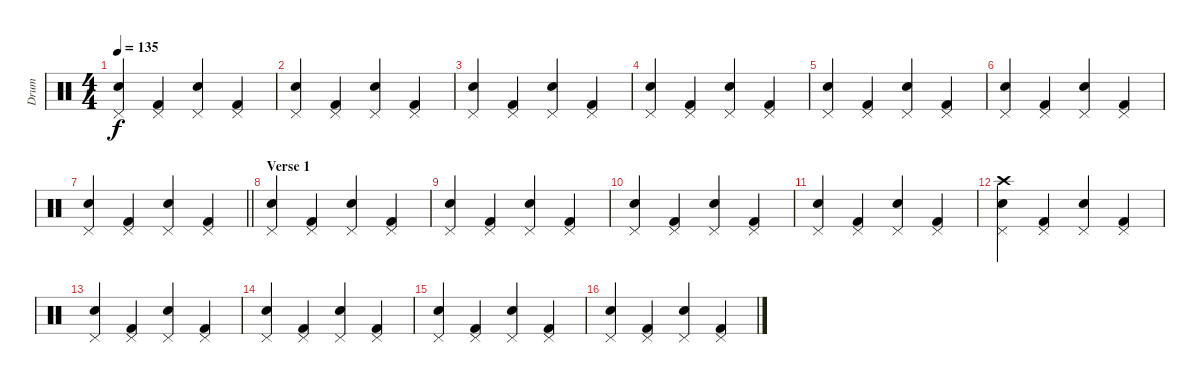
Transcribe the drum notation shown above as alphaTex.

\track ("Drum" "Drum") {instrument percussion}
\staff {score}
\articulation defaults
\ts (4 4)
\tempo 135
\clef neutral
\ks c
("Electric Snare (hit)" "Pedal Hi-Hat (hit)").4{dy f} ("Kick (hit) 2" "Pedal Hi-Hat (hit)").4 ("Electric Snare (hit)" "Pedal Hi-Hat (hit)").4 ("Kick (hit) 2" "Pedal Hi-Hat (hit)").4 |
("Electric Snare (hit)" "Pedal Hi-Hat (hit)").4 ("Kick (hit) 2" "Pedal Hi-Hat (hit)").4 ("Electric Snare (hit)" "Pedal Hi-Hat (hit)").4 ("Kick (hit) 2" "Pedal Hi-Hat (hit)").4 |
("Electric Snare (hit)" "Pedal Hi-Hat (hit)").4 ("Kick (hit) 2" "Pedal Hi-Hat (hit)").4 ("Electric Snare (hit)" "Pedal Hi-Hat (hit)").4 ("Kick (hit) 2" "Pedal Hi-Hat (hit)").4 |
("Electric Snare (hit)" "Pedal Hi-Hat (hit)").4 ("Kick (hit) 2" "Pedal Hi-Hat (hit)").4 ("Electric Snare (hit)" "Pedal Hi-Hat (hit)").4 ("Kick (hit) 2" "Pedal Hi-Hat (hit)").4 |
("Electric Snare (hit)" "Pedal Hi-Hat (hit)").4 ("Kick (hit) 2" "Pedal Hi-Hat (hit)").4 ("Electric Snare (hit)" "Pedal Hi-Hat (hit)").4 ("Kick (hit) 2" "Pedal Hi-Hat (hit)").4 |
("Electric Snare (hit)" "Pedal Hi-Hat (hit)").4 ("Kick (hit) 2" "Pedal Hi-Hat (hit)").4 ("Electric Snare (hit)" "Pedal Hi-Hat (hit)").4 ("Kick (hit) 2" "Pedal Hi-Hat (hit)").4 |
\barLineRight lightlight
("Electric Snare (hit)" "Pedal Hi-Hat (hit)").4 ("Kick (hit) 2" "Pedal Hi-Hat (hit)").4 ("Electric Snare (hit)" "Pedal Hi-Hat (hit)").4 ("Kick (hit) 2" "Pedal Hi-Hat (hit)").4 |
\section ("" "Verse 1")
("Electric Snare (hit)" "Pedal Hi-Hat (hit)").4 ("Kick (hit) 2" "Pedal Hi-Hat (hit)").4 ("Electric Snare (hit)" "Pedal Hi-Hat (hit)").4 ("Kick (hit) 2" "Pedal Hi-Hat (hit)").4 |
("Electric Snare (hit)" "Pedal Hi-Hat (hit)").4 ("Kick (hit) 2" "Pedal Hi-Hat (hit)").4 ("Electric Snare (hit)" "Pedal Hi-Hat (hit)").4 ("Kick (hit) 2" "Pedal Hi-Hat (hit)").4 |
("Electric Snare (hit)" "Pedal Hi-Hat (hit)").4 ("Kick (hit) 2" "Pedal Hi-Hat (hit)").4 ("Electric Snare (hit)" "Pedal Hi-Hat (hit)").4 ("Kick (hit) 2" "Pedal Hi-Hat (hit)").4 |
("Electric Snare (hit)" "Pedal Hi-Hat (hit)").4 ("Kick (hit) 2" "Pedal Hi-Hat (hit)").4 ("Electric Snare (hit)" "Pedal Hi-Hat (hit)").4 ("Kick (hit) 2" "Pedal Hi-Hat (hit)").4 |
("Electric Snare (hit)" "Pedal Hi-Hat (hit)" "Crash high (hit)").4 ("Kick (hit) 2" "Pedal Hi-Hat (hit)").4 ("Electric Snare (hit)" "Pedal Hi-Hat (hit)").4 ("Kick (hit) 2" "Pedal Hi-Hat (hit)").4 |
("Electric Snare (hit)" "Pedal Hi-Hat (hit)").4 ("Kick (hit) 2" "Pedal Hi-Hat (hit)").4 ("Electric Snare (hit)" "Pedal Hi-Hat (hit)").4 ("Kick (hit) 2" "Pedal Hi-Hat (hit)").4 |
("Electric Snare (hit)" "Pedal Hi-Hat (hit)").4 ("Kick (hit) 2" "Pedal Hi-Hat (hit)").4 ("Electric Snare (hit)" "Pedal Hi-Hat (hit)").4 ("Kick (hit) 2" "Pedal Hi-Hat (hit)").4 |
("Electric Snare (hit)" "Pedal Hi-Hat (hit)").4 ("Kick (hit) 2" "Pedal Hi-Hat (hit)").4 ("Electric Snare (hit)" "Pedal Hi-Hat (hit)").4 ("Kick (hit) 2" "Pedal Hi-Hat (hit)").4 |
("Electric Snare (hit)" "Pedal Hi-Hat (hit)").4 ("Kick (hit) 2" "Pedal Hi-Hat (hit)").4 ("Electric Snare (hit)" "Pedal Hi-Hat (hit)").4 ("Kick (hit) 2" "Pedal Hi-Hat (hit)").4
